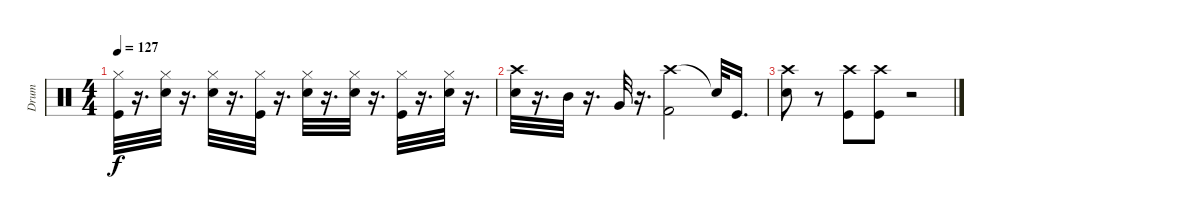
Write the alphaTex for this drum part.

\track ("Drum" "Drum") {instrument percussion}
\staff {score}
\articulation defaults
\ts (4 4)
\tempo 127
\clef neutral
\ks c
("Kick (hit)" "Hi-Hat (closed)").32{dy f} r.16{d} ("Hi-Hat (closed)" "Snare (hit) 2").32 r.16{d} ("Snare (hit) 2" "Hi-Hat (closed)").32 r.16{d} ("Kick (hit)" "Hi-Hat (closed)").32 r.16{d} ("Hi-Hat (closed)" "Snare (hit) 2").32 r.16{d} ("Hi-Hat (closed)" "Snare (hit) 2").32 r.16{d} ("Hi-Hat (closed)" "Kick (hit)").32 r.16{d} ("Hi-Hat (closed)" "Snare (hit) 2").32 r.16{d} |
("Snare (hit) 2" "Crash high (hit)").32 r.16{d} "Mid Tom (hit)".32 r.16{d} "Very Low Tom (hit)".32 r.16{d} ("Crash high (hit)" "Kick (hit) 2").2 "Snare (hit)"{t}.32 "Kick (hit)".16{d} |
("Snare (hit) 2" "Crash high (hit)").8 r.8 ("Kick (hit)" "Crash high (hit)").8 ("Kick (hit)" "Crash high (hit)").8 r.2
